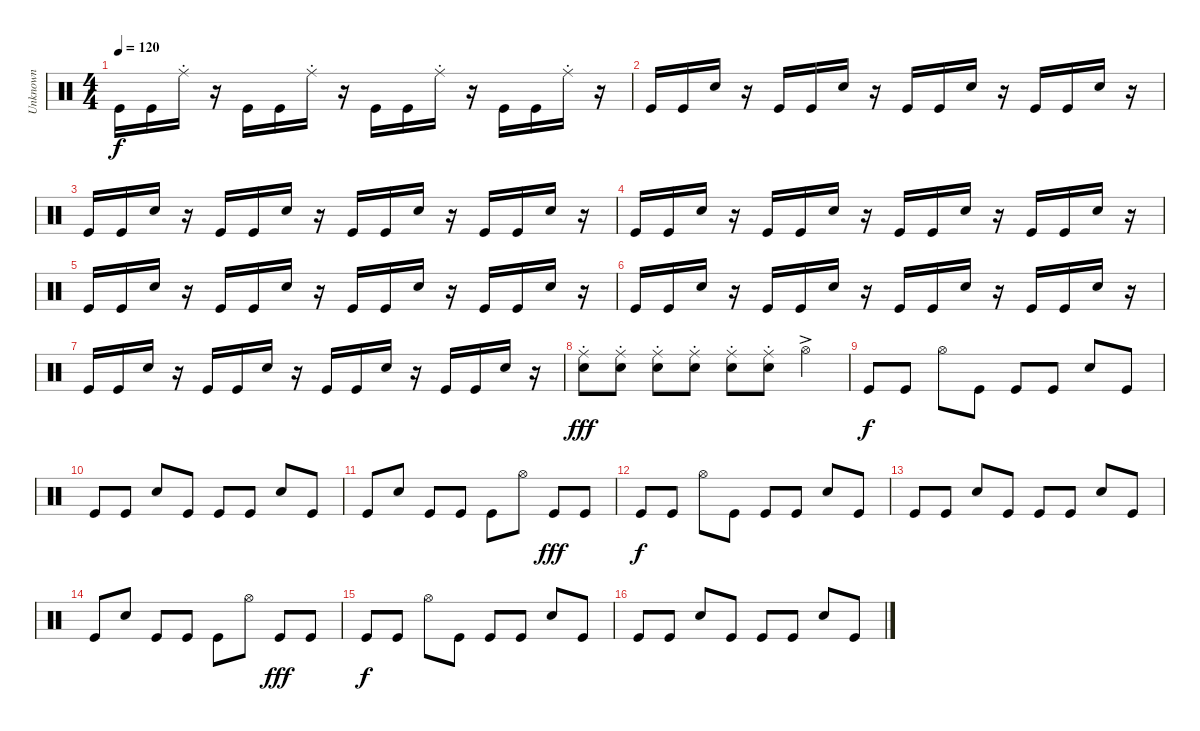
\track ("Unknown" "Unknown") {instrument percussion}
\staff {score}
\articulation defaults
\ts (4 4)
\tempo 120
\clef neutral
\ks c "Kick (hit)".16{dy f} "Kick (hit)".16 "Ride (middle)"{st}.16
r.16 "Kick (hit)".16 "Kick (hit)".16 "Ride (middle)"{st}.16 r.16 "Kick (hit)".16 "Kick (hit)".16 "Ride (middle)"{st}.16 r.16 "Kick (hit)".16 "Kick (hit)".16 "Ride (middle)"{st}.16 r.16 |
"Kick (hit)".16 "Kick (hit)".16 "Snare (hit) 2".16 r.16 "Kick (hit)".16 "Kick (hit)".16 "Snare (hit) 2".16 r.16 "Kick (hit)".16 "Kick (hit)".16 "Snare (hit) 2".16 r.16 "Kick (hit)".16 "Kick (hit)".16 "Snare (hit) 2".16 r.16 |
"Kick (hit)".16 "Kick (hit)".16 "Snare (hit) 2".16 r.16 "Kick (hit)".16 "Kick (hit)".16 "Snare (hit) 2".16 r.16 "Kick (hit)".16 "Kick (hit)".16 "Snare (hit) 2".16 r.16 "Kick (hit)".16 "Kick (hit)".16 "Snare (hit) 2".16 r.16 |
"Kick (hit)".16 "Kick (hit)".16 "Snare (hit) 2".16 r.16 "Kick (hit)".16 "Kick (hit)".16 "Snare (hit) 2".16 r.16 "Kick (hit)".16 "Kick (hit)".16 "Snare (hit) 2".16 r.16 "Kick (hit)".16 "Kick (hit)".16 "Snare (hit) 2".16 r.16 |
"Kick (hit)".16 "Kick (hit)".16 "Snare (hit) 2".16 r.16 "Kick (hit)".16 "Kick (hit)".16 "Snare (hit) 2".16 r.16 "Kick (hit)".16 "Kick (hit)".16 "Snare (hit) 2".16 r.16 "Kick (hit)".16 "Kick (hit)".16 "Snare (hit) 2".16 r.16 |
"Kick (hit)".16 "Kick (hit)".16 "Snare (hit) 2".16 r.16 "Kick (hit)".16 "Kick (hit)".16 "Snare (hit) 2".16 r.16 "Kick (hit)".16 "Kick (hit)".16 "Snare (hit) 2".16 r.16 "Kick (hit)".16 "Kick (hit)".16 "Snare (hit) 2".16 r.16 |
"Kick (hit)".16 "Kick (hit)".16 "Snare (hit) 2".16 r.16 "Kick (hit)".16 "Kick (hit)".16 "Snare (hit) 2".16 r.16 "Kick (hit)".16 "Kick (hit)".16 "Snare (hit) 2".16 r.16 "Kick (hit)".16 "Kick (hit)".16 "Snare (hit) 2".16 r.16 |
("Ride (middle)"{st} "Snare (hit) 2"{st}).8{dy fff} ("Ride (middle)"{st} "Snare (hit) 2"{st}).8 ("Ride (middle)"{st} "Snare (hit) 2"{st}).8 ("Ride (middle)"{st} "Snare (hit) 2"{st}).8 ("Ride (middle)"{st} "Snare (hit) 2"{st}).8 ("Ride (middle)"{st} "Snare (hit) 2"{st}).8 "Hi-Hat (open)"{ac}.4 |
"Kick (hit)".8{dy f} "Kick (hit)".8 "Hi-Hat (open)".8 "Kick (hit)".8 "Kick (hit)".8 "Kick (hit)".8 "Snare (hit) 2".8 "Kick (hit)".8 |
"Kick (hit)".8 "Kick (hit)".8 "Snare (hit) 2".8 "Kick (hit)".8 "Kick (hit)".8 "Kick (hit)".8 "Snare (hit) 2".8 "Kick (hit)".8 |
"Kick (hit)".8 "Snare (hit) 2".8 "Kick (hit)".8 "Kick (hit)".8 "Kick (hit)".8 "Hi-Hat (open)".8 "Kick (hit)".8{dy fff} "Kick (hit)".8 |
"Kick (hit)".8{dy f} "Kick (hit)".8 "Hi-Hat (open)".8 "Kick (hit)".8 "Kick (hit)".8 "Kick (hit)".8 "Snare (hit) 2".8 "Kick (hit)".8 |
"Kick (hit)".8 "Kick (hit)".8 "Snare (hit) 2".8 "Kick (hit)".8 "Kick (hit)".8 "Kick (hit)".8 "Snare (hit) 2".8 "Kick (hit)".8 |
"Kick (hit)".8 "Snare (hit) 2".8 "Kick (hit)".8 "Kick (hit)".8 "Kick (hit)".8 "Hi-Hat (open)".8 "Kick (hit)".8{dy fff} "Kick (hit)".8 |
"Kick (hit)".8{dy f} "Kick (hit)".8 "Hi-Hat (open)".8 "Kick (hit)".8 "Kick (hit)".8 "Kick (hit)".8 "Snare (hit) 2".8 "Kick (hit)".8 |
"Kick (hit)".8 "Kick (hit)".8 "Snare (hit) 2".8 "Kick (hit)".8 "Kick (hit)".8 "Kick (hit)".8 "Snare (hit) 2".8 "Kick (hit)".8
